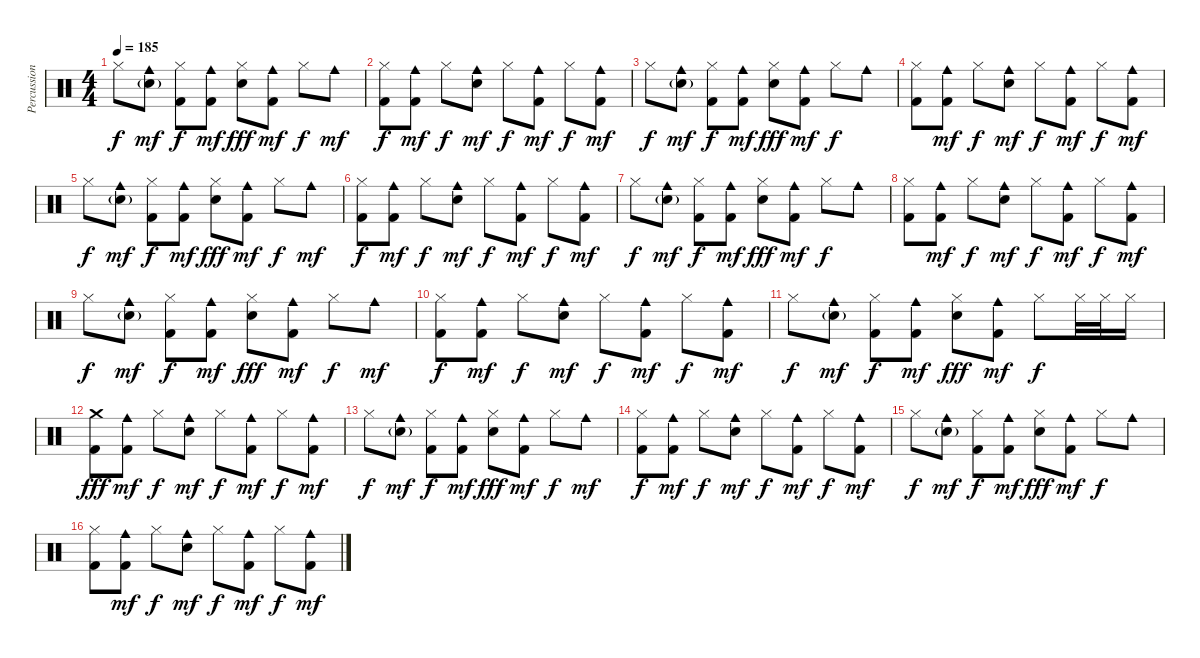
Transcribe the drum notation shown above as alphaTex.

\track ("Percussions" "Percussion") {instrument percussion}
\staff {score}
\articulation defaults
\ts (4 4)
\tempo 185
\clef neutral
\ks c "Hi-Hat (closed)".8{dy f}
("Electric Snare (hit)"{g} "Cowbell medium (hit)").8{dy mf} ("Kick (hit) 2" "Hi-Hat (closed)").8{dy f} ("Kick (hit) 2" "Cowbell medium (hit)").8{dy mf} ("Electric Snare (hit)" "Hi-Hat (closed)").8{dy fff} ("Kick (hit) 2" "Cowbell medium (hit)").8{dy mf} "Hi-Hat (closed)".8{dy f} "Cowbell medium (hit)".8{dy mf} |
("Kick (hit) 2" "Hi-Hat (closed)").8{dy f} ("Kick (hit) 2" "Cowbell medium (hit)").8{dy mf} "Hi-Hat (closed)".8{dy f} ("Electric Snare (hit)" "Cowbell medium (hit)").8{dy mf} "Hi-Hat (closed)".8{dy f} ("Kick (hit) 2" "Cowbell medium (hit)").8{dy mf} "Hi-Hat (closed)".8{dy f} ("Kick (hit) 2" "Cowbell medium (hit)").8{dy mf} |
"Hi-Hat (closed)".8{dy f} ("Electric Snare (hit)"{g} "Cowbell medium (hit)").8{dy mf} ("Kick (hit) 2" "Hi-Hat (closed)").8{dy f} ("Kick (hit) 2" "Cowbell medium (hit)").8{dy mf} ("Electric Snare (hit)" "Hi-Hat (closed)").8{dy fff} ("Kick (hit) 2" "Cowbell medium (hit)").8{dy mf} "Hi-Hat (closed)".8{dy f} "Cowbell medium (hit)".8 |
("Kick (hit) 2" "Hi-Hat (closed)").8 ("Kick (hit) 2" "Cowbell medium (hit)").8{dy mf} "Hi-Hat (closed)".8{dy f} ("Electric Snare (hit)" "Cowbell medium (hit)").8{dy mf} "Hi-Hat (closed)".8{dy f} ("Kick (hit) 2" "Cowbell medium (hit)").8{dy mf} "Hi-Hat (closed)".8{dy f} ("Kick (hit) 2" "Cowbell medium (hit)").8{dy mf} |
"Hi-Hat (closed)".8{dy f} ("Electric Snare (hit)"{g} "Cowbell medium (hit)").8{dy mf} ("Kick (hit) 2" "Hi-Hat (closed)").8{dy f} ("Kick (hit) 2" "Cowbell medium (hit)").8{dy mf} ("Electric Snare (hit)" "Hi-Hat (closed)").8{dy fff} ("Kick (hit) 2" "Cowbell medium (hit)").8{dy mf} "Hi-Hat (closed)".8{dy f} "Cowbell medium (hit)".8{dy mf} |
("Kick (hit) 2" "Hi-Hat (closed)").8{dy f} ("Kick (hit) 2" "Cowbell medium (hit)").8{dy mf} "Hi-Hat (closed)".8{dy f} ("Electric Snare (hit)" "Cowbell medium (hit)").8{dy mf} "Hi-Hat (closed)".8{dy f} ("Kick (hit) 2" "Cowbell medium (hit)").8{dy mf} "Hi-Hat (closed)".8{dy f} ("Kick (hit) 2" "Cowbell medium (hit)").8{dy mf} |
"Hi-Hat (closed)".8{dy f} ("Electric Snare (hit)"{g} "Cowbell medium (hit)").8{dy mf} ("Kick (hit) 2" "Hi-Hat (closed)").8{dy f} ("Kick (hit) 2" "Cowbell medium (hit)").8{dy mf} ("Electric Snare (hit)" "Hi-Hat (closed)").8{dy fff} ("Kick (hit) 2" "Cowbell medium (hit)").8{dy mf} "Hi-Hat (closed)".8{dy f} "Cowbell medium (hit)".8 |
("Kick (hit) 2" "Hi-Hat (closed)").8 ("Kick (hit) 2" "Cowbell medium (hit)").8{dy mf} "Hi-Hat (closed)".8{dy f} ("Electric Snare (hit)" "Cowbell medium (hit)").8{dy mf} "Hi-Hat (closed)".8{dy f} ("Kick (hit) 2" "Cowbell medium (hit)").8{dy mf} "Hi-Hat (closed)".8{dy f} ("Kick (hit) 2" "Cowbell medium (hit)").8{dy mf} |
"Hi-Hat (closed)".8{dy f} ("Electric Snare (hit)"{g} "Cowbell medium (hit)").8{dy mf} ("Kick (hit) 2" "Hi-Hat (closed)").8{dy f} ("Kick (hit) 2" "Cowbell medium (hit)").8{dy mf} ("Electric Snare (hit)" "Hi-Hat (closed)").8{dy fff} ("Kick (hit) 2" "Cowbell medium (hit)").8{dy mf} "Hi-Hat (closed)".8{dy f} "Cowbell medium (hit)".8{dy mf} |
("Kick (hit) 2" "Hi-Hat (closed)").8{dy f} ("Kick (hit) 2" "Cowbell medium (hit)").8{dy mf} "Hi-Hat (closed)".8{dy f} ("Electric Snare (hit)" "Cowbell medium (hit)").8{dy mf} "Hi-Hat (closed)".8{dy f} ("Kick (hit) 2" "Cowbell medium (hit)").8{dy mf} "Hi-Hat (closed)".8{dy f} ("Kick (hit) 2" "Cowbell medium (hit)").8{dy mf} |
"Hi-Hat (closed)".8{dy f} ("Electric Snare (hit)"{g} "Cowbell medium (hit)").8{dy mf} ("Kick (hit) 2" "Hi-Hat (closed)").8{dy f} ("Kick (hit) 2" "Cowbell medium (hit)").8{dy mf} ("Electric Snare (hit)" "Hi-Hat (closed)").8{dy fff} ("Kick (hit) 2" "Cowbell medium (hit)").8{dy mf} "Hi-Hat (closed)".8{dy f} "Hi-Hat (closed)".32 "Hi-Hat (closed)".32 "Hi-Hat (closed)".16 |
("Crash medium (hit)" "Kick (hit) 2").8{dy fff} ("Kick (hit) 2" "Cowbell medium (hit)").8{dy mf} "Hi-Hat (closed)".8{dy f} ("Electric Snare (hit)" "Cowbell medium (hit)").8{dy mf} "Hi-Hat (closed)".8{dy f} ("Kick (hit) 2" "Cowbell medium (hit)").8{dy mf} "Hi-Hat (closed)".8{dy f} ("Kick (hit) 2" "Cowbell medium (hit)").8{dy mf} |
"Hi-Hat (closed)".8{dy f} ("Electric Snare (hit)"{g} "Cowbell medium (hit)").8{dy mf} ("Kick (hit) 2" "Hi-Hat (closed)").8{dy f} ("Kick (hit) 2" "Cowbell medium (hit)").8{dy mf} ("Electric Snare (hit)" "Hi-Hat (closed)").8{dy fff} ("Kick (hit) 2" "Cowbell medium (hit)").8{dy mf} "Hi-Hat (closed)".8{dy f} "Cowbell medium (hit)".8{dy mf} |
("Kick (hit) 2" "Hi-Hat (closed)").8{dy f} ("Kick (hit) 2" "Cowbell medium (hit)").8{dy mf} "Hi-Hat (closed)".8{dy f} ("Electric Snare (hit)" "Cowbell medium (hit)").8{dy mf} "Hi-Hat (closed)".8{dy f} ("Kick (hit) 2" "Cowbell medium (hit)").8{dy mf} "Hi-Hat (closed)".8{dy f} ("Kick (hit) 2" "Cowbell medium (hit)").8{dy mf} |
"Hi-Hat (closed)".8{dy f} ("Electric Snare (hit)"{g} "Cowbell medium (hit)").8{dy mf} ("Kick (hit) 2" "Hi-Hat (closed)").8{dy f} ("Kick (hit) 2" "Cowbell medium (hit)").8{dy mf} ("Electric Snare (hit)" "Hi-Hat (closed)").8{dy fff} ("Kick (hit) 2" "Cowbell medium (hit)").8{dy mf} "Hi-Hat (closed)".8{dy f} "Cowbell medium (hit)".8 |
("Kick (hit) 2" "Hi-Hat (closed)").8 ("Kick (hit) 2" "Cowbell medium (hit)").8{dy mf} "Hi-Hat (closed)".8{dy f} ("Electric Snare (hit)" "Cowbell medium (hit)").8{dy mf} "Hi-Hat (closed)".8{dy f} ("Kick (hit) 2" "Cowbell medium (hit)").8{dy mf} "Hi-Hat (closed)".8{dy f} ("Kick (hit) 2" "Cowbell medium (hit)").8{dy mf}
